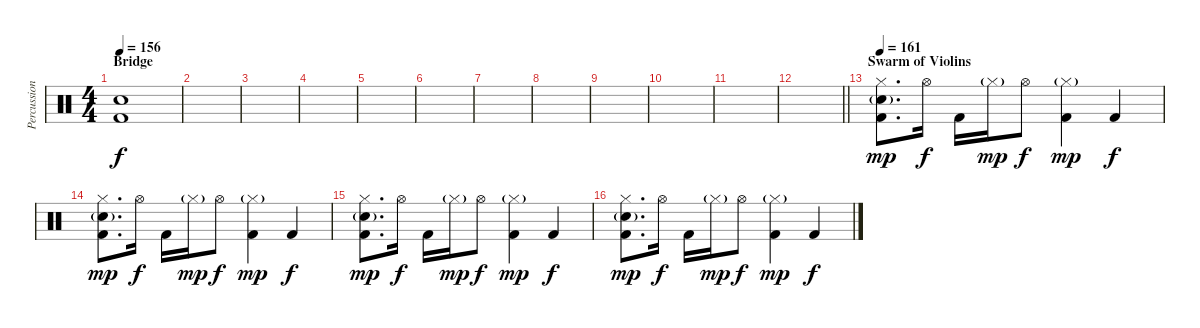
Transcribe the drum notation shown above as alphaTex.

\track ("Percussion" "Percussion") {instrument percussion}
\staff {score}
\articulation defaults
\ts (4 4)
\section ("" "Bridge")
\tempo 156
\clef neutral
\ks c
("Snare (hit) 2" "Kick (hit) 2").1{dy f} |
|
|
|
|
|
|
|
|
|
|
\barLineRight lightlight
|
\section ("" "Swarm of Violins")
\tempo 161
("Hi-Hat (closed)" "Snare (hit) 2"{g} "Kick (hit) 2").8{d dy mp} "Hi-Hat (open)".16{dy f} "Kick (hit) 2".16 "Hi-Hat (closed)"{g}.16{dy mp} "Hi-Hat (open)".8{dy f} ("Hi-Hat (closed)"{g} "Kick (hit) 2").4{dy mp} "Kick (hit) 2".4{dy f} |
("Hi-Hat (closed)" "Snare (hit) 2"{g} "Kick (hit) 2").8{d dy mp} "Hi-Hat (open)".16{dy f} "Kick (hit) 2".16 "Hi-Hat (closed)"{g}.16{dy mp} "Hi-Hat (open)".8{dy f} ("Hi-Hat (closed)"{g} "Kick (hit) 2").4{dy mp} "Kick (hit) 2".4{dy f} |
("Hi-Hat (closed)" "Snare (hit) 2"{g} "Kick (hit) 2").8{d dy mp} "Hi-Hat (open)".16{dy f} "Kick (hit) 2".16 "Hi-Hat (closed)"{g}.16{dy mp} "Hi-Hat (open)".8{dy f} ("Hi-Hat (closed)"{g} "Kick (hit) 2").4{dy mp} "Kick (hit) 2".4{dy f} |
("Hi-Hat (closed)" "Snare (hit) 2"{g} "Kick (hit) 2").8{d dy mp} "Hi-Hat (open)".16{dy f} "Kick (hit) 2".16 "Hi-Hat (closed)"{g}.16{dy mp} "Hi-Hat (open)".8{dy f} ("Hi-Hat (closed)"{g} "Kick (hit) 2").4{dy mp} "Kick (hit) 2".4{dy f}
